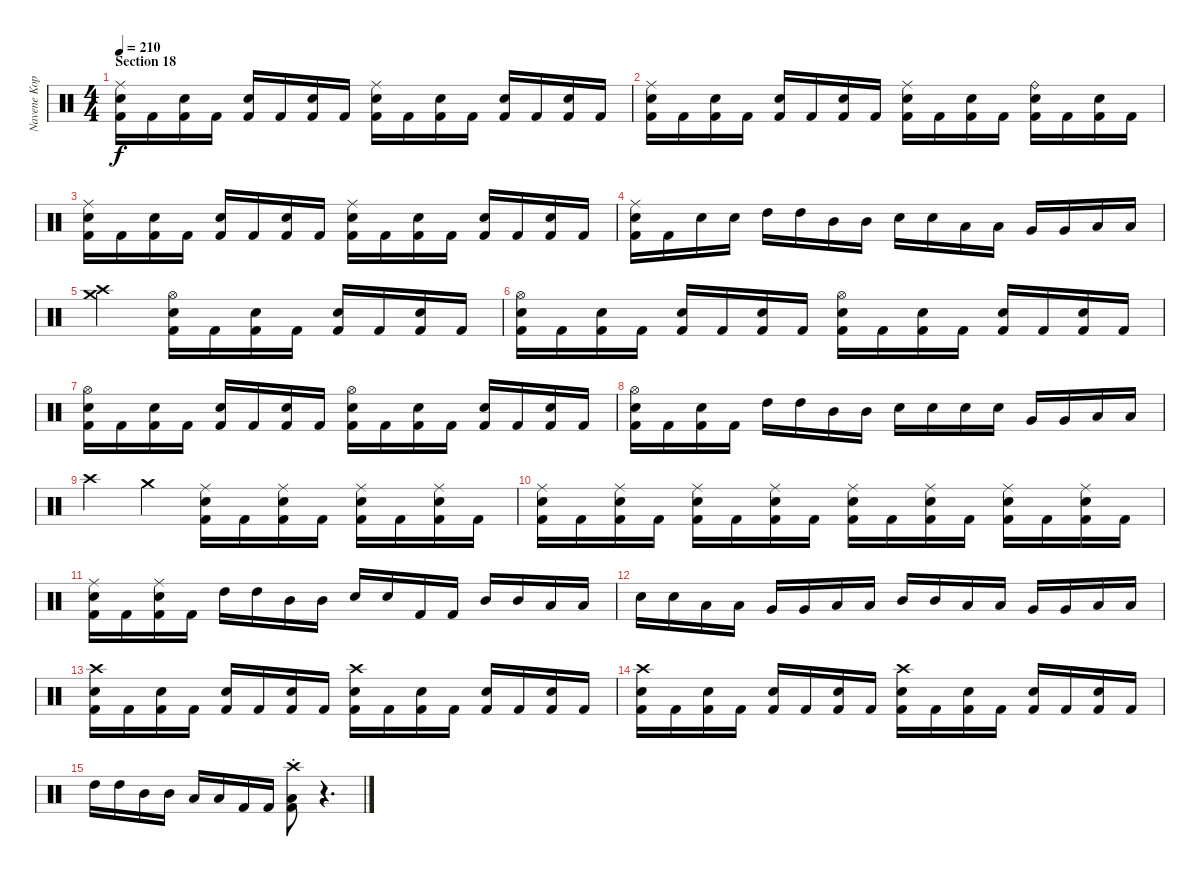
\track ("Navene Koperweis - drums" "Navene Kop") {instrument percussion}
\staff {score}
\articulation defaults
\ts (4 4)
\section ("" "Section 18")
\tempo 210
\clef neutral
\ks c
("Ride (middle)" "Electric Snare (hit)" "Kick (hit) 2").16{dy f} "Kick (hit) 2".16 ("Electric Snare (hit)" "Kick (hit) 2").16 "Kick (hit) 2".16 ("Electric Snare (hit)" "Kick (hit) 2").16 "Kick (hit) 2".16 ("Electric Snare (hit)" "Kick (hit) 2").16 "Kick (hit) 2".16 ("Ride (middle)" "Electric Snare (hit)" "Kick (hit) 2").16 "Kick (hit) 2".16 ("Electric Snare (hit)" "Kick (hit) 2").16 "Kick (hit) 2".16 ("Electric Snare (hit)" "Kick (hit) 2").16 "Kick (hit) 2".16 ("Electric Snare (hit)" "Kick (hit) 2").16 "Kick (hit) 2".16 |
("Ride (middle)" "Electric Snare (hit)" "Kick (hit) 2").16 "Kick (hit) 2".16 ("Electric Snare (hit)" "Kick (hit) 2").16 "Kick (hit) 2".16 ("Electric Snare (hit)" "Kick (hit) 2").16 "Kick (hit) 2".16 ("Electric Snare (hit)" "Kick (hit) 2").16 "Kick (hit) 2".16 ("Ride (middle)" "Electric Snare (hit)" "Kick (hit) 2").16 "Kick (hit) 2".16 ("Electric Snare (hit)" "Kick (hit) 2").16 "Kick (hit) 2".16 ("Ride (bell)" "Electric Snare (hit)" "Kick (hit) 2").16 "Kick (hit) 2".16 ("Electric Snare (hit)" "Kick (hit) 2").16 "Kick (hit) 2".16 |
("Ride (middle)" "Electric Snare (hit)" "Kick (hit) 2").16 "Kick (hit) 2".16 ("Electric Snare (hit)" "Kick (hit) 2").16 "Kick (hit) 2".16 ("Electric Snare (hit)" "Kick (hit) 2").16 "Kick (hit) 2".16 ("Electric Snare (hit)" "Kick (hit) 2").16 "Kick (hit) 2".16 ("Ride (middle)" "Electric Snare (hit)" "Kick (hit) 2").16 "Kick (hit) 2".16 ("Electric Snare (hit)" "Kick (hit) 2").16 "Kick (hit) 2".16 ("Electric Snare (hit)" "Kick (hit) 2").16 "Kick (hit) 2".16 ("Electric Snare (hit)" "Kick (hit) 2").16 "Kick (hit) 2".16 |
("Ride (middle)" "Electric Snare (hit)" "Kick (hit) 2").16 "Kick (hit) 2".16 "Electric Snare (hit)".16 "Electric Snare (hit)".16 "High Tom (hit)".16 "High Tom (hit)".16 "Mid Tom (hit)".16 "Mid Tom (hit)".16 "Electric Snare (hit)".16 "Electric Snare (hit)".16 "Low Tom (hit)".16 "Low Tom (hit)".16 "Very Low Tom (hit)".16 "Very Low Tom (hit)".16 "Low Floor Tom (hit)".16 "Low Floor Tom (hit)".16 |
("Crash high (hit)" "Crash medium (hit)").2 ("Hi-Hat (open)" "Electric Snare (hit)" "Kick (hit) 2").16 "Kick (hit) 2".16 ("Electric Snare (hit)" "Kick (hit) 2").16 "Kick (hit) 2".16 ("Electric Snare (hit)" "Kick (hit) 2").16 "Kick (hit) 2".16 ("Electric Snare (hit)" "Kick (hit) 2").16 "Kick (hit) 2".16 |
("Hi-Hat (open)" "Electric Snare (hit)" "Kick (hit) 2").16 "Kick (hit) 2".16 ("Electric Snare (hit)" "Kick (hit) 2").16 "Kick (hit) 2".16 ("Electric Snare (hit)" "Kick (hit) 2").16 "Kick (hit) 2".16 ("Electric Snare (hit)" "Kick (hit) 2").16 "Kick (hit) 2".16 ("Hi-Hat (open)" "Electric Snare (hit)" "Kick (hit) 2").16 "Kick (hit) 2".16 ("Electric Snare (hit)" "Kick (hit) 2").16 "Kick (hit) 2".16 ("Electric Snare (hit)" "Kick (hit) 2").16 "Kick (hit) 2".16 ("Electric Snare (hit)" "Kick (hit) 2").16 "Kick (hit) 2".16 |
("Hi-Hat (open)" "Electric Snare (hit)" "Kick (hit) 2").16 "Kick (hit) 2".16 ("Electric Snare (hit)" "Kick (hit) 2").16 "Kick (hit) 2".16 ("Electric Snare (hit)" "Kick (hit) 2").16 "Kick (hit) 2".16 ("Electric Snare (hit)" "Kick (hit) 2").16 "Kick (hit) 2".16 ("Hi-Hat (open)" "Electric Snare (hit)" "Kick (hit) 2").16 "Kick (hit) 2".16 ("Electric Snare (hit)" "Kick (hit) 2").16 "Kick (hit) 2".16 ("Electric Snare (hit)" "Kick (hit) 2").16 "Kick (hit) 2".16 ("Electric Snare (hit)" "Kick (hit) 2").16 "Kick (hit) 2".16 |
("Hi-Hat (open)" "Electric Snare (hit)" "Kick (hit) 2").16 "Kick (hit) 2".16 ("Electric Snare (hit)" "Kick (hit) 2").16 "Kick (hit) 2".16 "High Tom (hit)".16 "High Tom (hit)".16 "Mid Tom (hit)".16 "Mid Tom (hit)".16 "Electric Snare (hit)".16 "Electric Snare (hit)".16 "Electric Snare (hit)".16 "Electric Snare (hit)".16 "Very Low Tom (hit)".16 "Very Low Tom (hit)".16 "Low Floor Tom (hit)".16 "Low Floor Tom (hit)".16 |
"Crash high (hit)".4 "Crash medium (hit)".4 ("Ride (middle)" "Electric Snare (hit)" "Kick (hit) 2").16 "Kick (hit) 2".16 ("Ride (middle)" "Electric Snare (hit)" "Kick (hit) 2").16 "Kick (hit) 2".16 ("Ride (middle)" "Electric Snare (hit)" "Kick (hit) 2").16 "Kick (hit) 2".16 ("Ride (middle)" "Electric Snare (hit)" "Kick (hit) 2").16 "Kick (hit) 2".16 |
("Ride (middle)" "Electric Snare (hit)" "Kick (hit) 2").16 "Kick (hit) 2".16 ("Ride (middle)" "Electric Snare (hit)" "Kick (hit) 2").16 "Kick (hit) 2".16 ("Ride (middle)" "Electric Snare (hit)" "Kick (hit) 2").16 "Kick (hit) 2".16 ("Ride (middle)" "Electric Snare (hit)" "Kick (hit) 2").16 "Kick (hit) 2".16 ("Ride (middle)" "Electric Snare (hit)" "Kick (hit) 2").16 "Kick (hit) 2".16 ("Ride (middle)" "Electric Snare (hit)" "Kick (hit) 2").16 "Kick (hit) 2".16 ("Ride (middle)" "Electric Snare (hit)" "Kick (hit) 2").16 "Kick (hit) 2".16 ("Ride (middle)" "Electric Snare (hit)" "Kick (hit) 2").16 "Kick (hit) 2".16 |
("Ride (middle)" "Electric Snare (hit)" "Kick (hit) 2").16 "Kick (hit) 2".16 ("Ride (middle)" "Electric Snare (hit)" "Kick (hit) 2").16 "Kick (hit) 2".16 "High Tom (hit)".16 "High Tom (hit)".16 "Mid Tom (hit)".16 "Mid Tom (hit)".16 "Electric Snare (hit)".16 "Electric Snare (hit)".16 "Kick (hit) 2".16 "Kick (hit) 2".16 "Mid Tom (hit)".16 "Mid Tom (hit)".16 "Low Tom (hit)".16 "Low Tom (hit)".16 |
"Electric Snare (hit)".16 "Electric Snare (hit)".16 "Low Floor Tom (hit)".16 "Low Floor Tom (hit)".16 "Very Low Tom (hit)".16 "Very Low Tom (hit)".16 "Low Tom (hit)".16 "Low Tom (hit)".16 "Mid Tom (hit)".16 "Mid Tom (hit)".16 "Low Tom (hit)".16 "Low Tom (hit)".16 "Very Low Tom (hit)".16 "Very Low Tom (hit)".16 "Low Floor Tom (hit)".16 "Low Floor Tom (hit)".16 |
("Crash high (hit)" "Electric Snare (hit)" "Kick (hit) 2").16 "Kick (hit) 2".16 ("Electric Snare (hit)" "Kick (hit) 2").16 "Kick (hit) 2".16 ("Electric Snare (hit)" "Kick (hit) 2").16 "Kick (hit) 2".16 ("Electric Snare (hit)" "Kick (hit) 2").16 "Kick (hit) 2".16 ("Crash high (hit)" "Electric Snare (hit)" "Kick (hit) 2").16 "Kick (hit) 2".16 ("Electric Snare (hit)" "Kick (hit) 2").16 "Kick (hit) 2".16 ("Electric Snare (hit)" "Kick (hit) 2").16 "Kick (hit) 2".16 ("Electric Snare (hit)" "Kick (hit) 2").16 "Kick (hit) 2".16 |
("Crash high (hit)" "Electric Snare (hit)" "Kick (hit) 2").16 "Kick (hit) 2".16 ("Electric Snare (hit)" "Kick (hit) 2").16 "Kick (hit) 2".16 ("Electric Snare (hit)" "Kick (hit) 2").16 "Kick (hit) 2".16 ("Electric Snare (hit)" "Kick (hit) 2").16 "Kick (hit) 2".16 ("Crash high (hit)" "Electric Snare (hit)" "Kick (hit) 2").16 "Kick (hit) 2".16 ("Electric Snare (hit)" "Kick (hit) 2").16 "Kick (hit) 2".16 ("Electric Snare (hit)" "Kick (hit) 2").16 "Kick (hit) 2".16 ("Electric Snare (hit)" "Kick (hit) 2").16 "Kick (hit) 2".16 |
"High Tom (hit)".16 "High Tom (hit)".16 "Mid Tom (hit)".16 "Mid Tom (hit)".16 "Low Tom (hit)".16 "Low Tom (hit)".16 "Kick (hit) 2".16 "Kick (hit) 2".16 ("Crash high (hit)"{st} "Low Tom (hit)"{st} "Kick (hit) 2"{st}).8 r.4{d}
